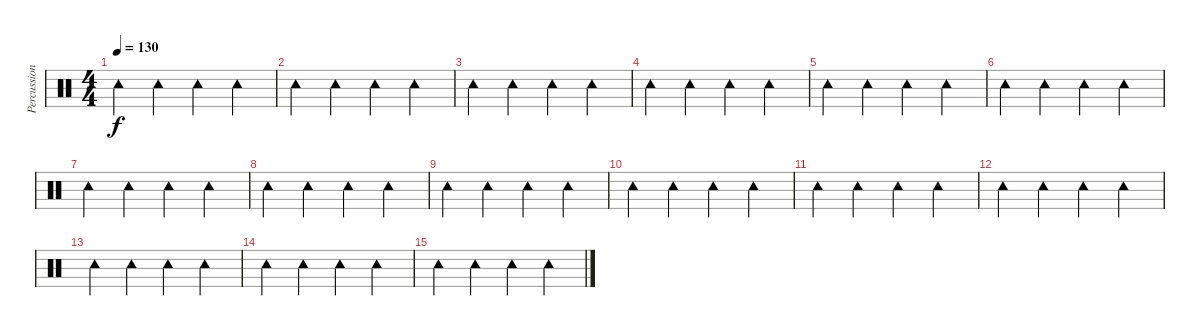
\track ("Percussion" "Percussion") {instrument percussion}
\staff {score}
\articulation defaults
\ts (4 4)
\tempo 130
\clef neutral
\ks c "Tambourine (hit)".4{dy f} "Tambourine (hit)".4 "Tambourine (hit)".4 "Tambourine (hit)".4
|
"Tambourine (hit)".4 "Tambourine (hit)".4 "Tambourine (hit)".4 "Tambourine (hit)".4 |
"Tambourine (hit)".4 "Tambourine (hit)".4 "Tambourine (hit)".4 "Tambourine (hit)".4 |
"Tambourine (hit)".4 "Tambourine (hit)".4 "Tambourine (hit)".4 "Tambourine (hit)".4 |
"Tambourine (hit)".4 "Tambourine (hit)".4 "Tambourine (hit)".4 "Tambourine (hit)".4 |
"Tambourine (hit)".4 "Tambourine (hit)".4 "Tambourine (hit)".4 "Tambourine (hit)".4 |
"Tambourine (hit)".4 "Tambourine (hit)".4 "Tambourine (hit)".4 "Tambourine (hit)".4 |
"Tambourine (hit)".4 "Tambourine (hit)".4 "Tambourine (hit)".4 "Tambourine (hit)".4 |
"Tambourine (hit)".4 "Tambourine (hit)".4 "Tambourine (hit)".4 "Tambourine (hit)".4 |
"Tambourine (hit)".4 "Tambourine (hit)".4 "Tambourine (hit)".4 "Tambourine (hit)".4 |
"Tambourine (hit)".4 "Tambourine (hit)".4 "Tambourine (hit)".4 "Tambourine (hit)".4 |
"Tambourine (hit)".4 "Tambourine (hit)".4 "Tambourine (hit)".4 "Tambourine (hit)".4 |
"Tambourine (hit)".4 "Tambourine (hit)".4 "Tambourine (hit)".4 "Tambourine (hit)".4 |
"Tambourine (hit)".4 "Tambourine (hit)".4 "Tambourine (hit)".4 "Tambourine (hit)".4 |
"Tambourine (hit)".4 "Tambourine (hit)".4 "Tambourine (hit)".4 "Tambourine (hit)".4
